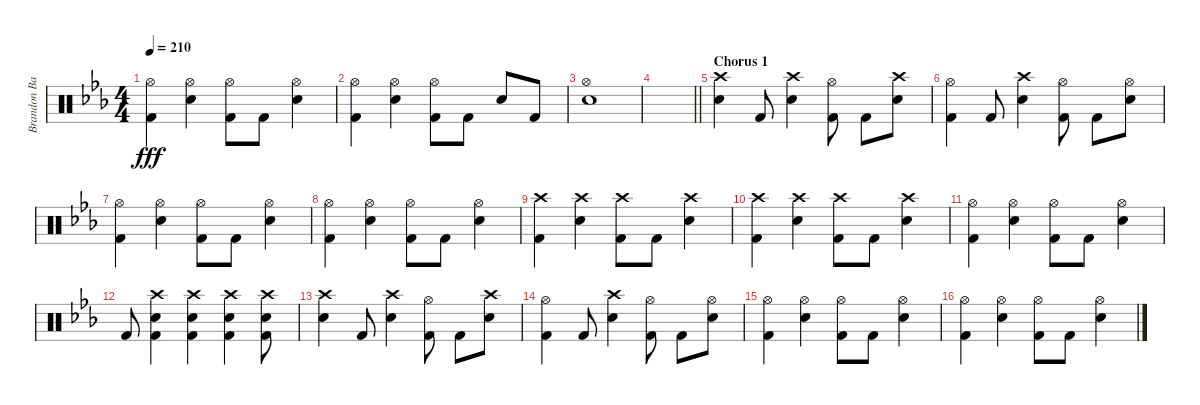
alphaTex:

\track ("Brandon Barnes" "Brandon Ba") {instrument percussion}
\staff {score}
\articulation defaults
\ts (4 4)
\tempo 210
\clef neutral
\ks eb
("Hi-Hat (open)" "Kick (hit) 2").4{dy fff} ("Hi-Hat (open)" "Snare (hit) 2").4 ("Hi-Hat (open)" "Kick (hit) 2").8 "Kick (hit) 2".8 ("Hi-Hat (open)" "Snare (hit) 2").4 |
("Hi-Hat (open)" "Kick (hit) 2").4 ("Hi-Hat (open)" "Snare (hit) 2").4 ("Hi-Hat (open)" "Kick (hit) 2").8 "Kick (hit) 2".8 "Snare (hit) 2".8 "Kick (hit) 2".8 |
("Hi-Hat (open)" "Snare (hit) 2").1 |
\barLineRight lightlight
|
\section ("" "Chorus 1")
("Crash high (hit)" "Snare (hit) 2").4 "Kick (hit) 2".8 ("Crash high (hit)" "Snare (hit) 2").4 ("Hi-Hat (open)" "Kick (hit) 2").8 "Kick (hit) 2".8 ("Crash high (hit)" "Snare (hit) 2").8 |
("Hi-Hat (open)" "Kick (hit) 2").4 "Kick (hit) 2".8 ("Crash high (hit)" "Snare (hit) 2").4 ("Hi-Hat (open)" "Kick (hit) 2").8 "Kick (hit) 2".8 ("Hi-Hat (open)" "Snare (hit) 2").8 |
("Hi-Hat (open)" "Kick (hit) 2").4 ("Hi-Hat (open)" "Snare (hit) 2").4 ("Hi-Hat (open)" "Kick (hit) 2").8 "Kick (hit) 2".8 ("Hi-Hat (open)" "Snare (hit) 2").4 |
("Hi-Hat (open)" "Kick (hit) 2").4 ("Hi-Hat (open)" "Snare (hit) 2").4 ("Hi-Hat (open)" "Kick (hit) 2").8 "Kick (hit) 2".8 ("Hi-Hat (open)" "Snare (hit) 2").4 |
("Crash high (hit)" "Kick (hit) 2").4 ("Crash high (hit)" "Snare (hit) 2").4 ("Crash high (hit)" "Kick (hit) 2").8 "Kick (hit) 2".8 ("Crash high (hit)" "Snare (hit) 2").4 |
("Crash high (hit)" "Kick (hit) 2").4 ("Crash high (hit)" "Snare (hit) 2").4 ("Crash high (hit)" "Kick (hit) 2").8 "Kick (hit) 2".8 ("Crash high (hit)" "Snare (hit) 2").4 |
("Hi-Hat (open)" "Kick (hit) 2").4 ("Hi-Hat (open)" "Snare (hit) 2").4 ("Hi-Hat (open)" "Kick (hit) 2").8 "Kick (hit) 2".8 ("Hi-Hat (open)" "Snare (hit) 2").4 |
"Kick (hit) 2".8 ("Crash high (hit)" "Kick (hit) 2" "Snare (hit) 2").4 ("Crash high (hit)" "Kick (hit) 2" "Snare (hit) 2").4 ("Crash high (hit)" "Kick (hit) 2" "Snare (hit) 2").4 ("Crash high (hit)" "Kick (hit) 2" "Snare (hit) 2").8 |
("Crash high (hit)" "Snare (hit) 2").4 "Kick (hit) 2".8 ("Crash high (hit)" "Snare (hit) 2").4 ("Hi-Hat (open)" "Kick (hit) 2").8 "Kick (hit) 2".8 ("Crash high (hit)" "Snare (hit) 2").8 |
("Hi-Hat (open)" "Kick (hit) 2").4 "Kick (hit) 2".8 ("Crash high (hit)" "Snare (hit) 2").4 ("Hi-Hat (open)" "Kick (hit) 2").8 "Kick (hit) 2".8 ("Hi-Hat (open)" "Snare (hit) 2").8 |
("Hi-Hat (open)" "Kick (hit) 2").4 ("Hi-Hat (open)" "Snare (hit) 2").4 ("Hi-Hat (open)" "Kick (hit) 2").8 "Kick (hit) 2".8 ("Hi-Hat (open)" "Snare (hit) 2").4 |
("Hi-Hat (open)" "Kick (hit) 2").4 ("Hi-Hat (open)" "Snare (hit) 2").4 ("Hi-Hat (open)" "Kick (hit) 2").8 "Kick (hit) 2".8 ("Hi-Hat (open)" "Snare (hit) 2").4
